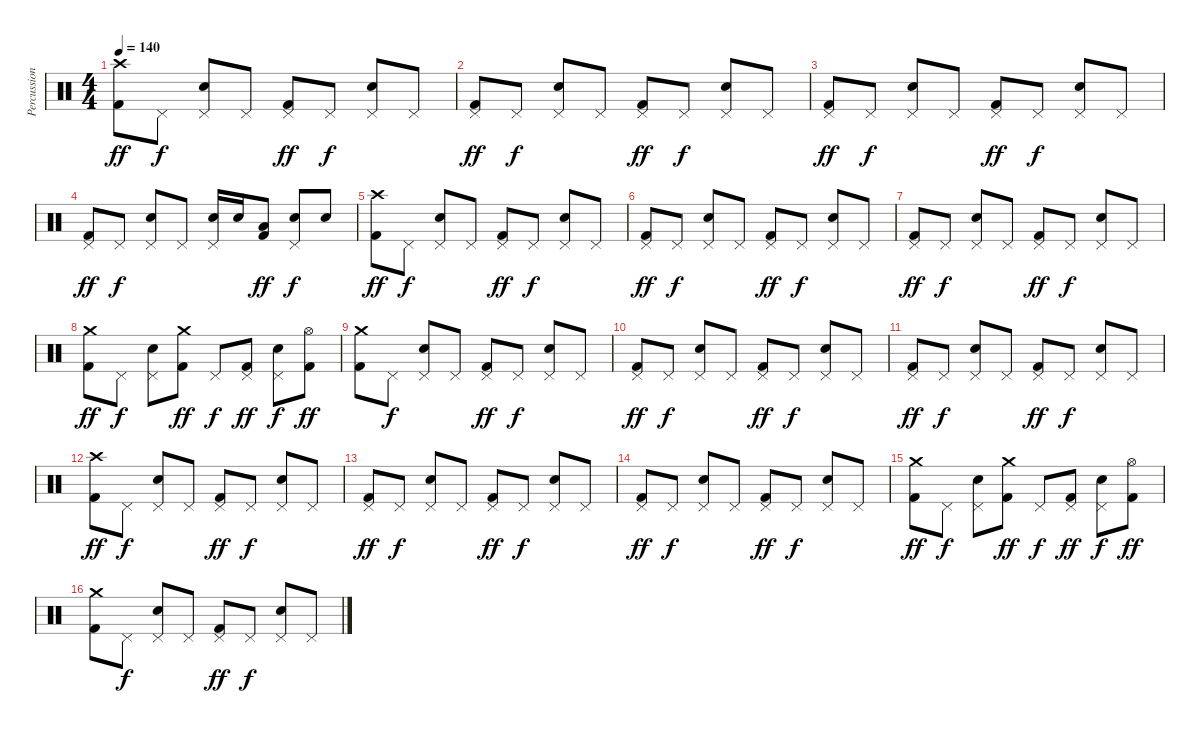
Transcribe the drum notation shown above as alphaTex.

\track ("Percussion" "Percussion") {instrument percussion}
\staff {score}
\articulation defaults
\ts (4 4)
\tempo 140
\clef neutral
\ks c
("Crash high (hit)" "Kick (hit) 2").8{dy ff} "Pedal Hi-Hat (hit)".8{dy f} ("Pedal Hi-Hat (hit)" "Snare (hit) 2").8 "Pedal Hi-Hat (hit)".8 ("Pedal Hi-Hat (hit)" "Kick (hit) 2").8{dy ff} "Pedal Hi-Hat (hit)".8{dy f} ("Pedal Hi-Hat (hit)" "Snare (hit) 2").8 "Pedal Hi-Hat (hit)".8 |
("Pedal Hi-Hat (hit)" "Kick (hit) 2").8{dy ff} "Pedal Hi-Hat (hit)".8{dy f} ("Pedal Hi-Hat (hit)" "Snare (hit) 2").8 "Pedal Hi-Hat (hit)".8 ("Pedal Hi-Hat (hit)" "Kick (hit) 2").8{dy ff} "Pedal Hi-Hat (hit)".8{dy f} ("Pedal Hi-Hat (hit)" "Snare (hit) 2").8 "Pedal Hi-Hat (hit)".8 |
("Pedal Hi-Hat (hit)" "Kick (hit) 2").8{dy ff} "Pedal Hi-Hat (hit)".8{dy f} ("Pedal Hi-Hat (hit)" "Snare (hit) 2").8 "Pedal Hi-Hat (hit)".8 ("Pedal Hi-Hat (hit)" "Kick (hit) 2").8{dy ff} "Pedal Hi-Hat (hit)".8{dy f} ("Pedal Hi-Hat (hit)" "Snare (hit) 2").8 "Pedal Hi-Hat (hit)".8 |
("Pedal Hi-Hat (hit)" "Kick (hit) 2").8{dy ff} "Pedal Hi-Hat (hit)".8{dy f} ("Pedal Hi-Hat (hit)" "Snare (hit) 2").8 "Pedal Hi-Hat (hit)".8 ("Pedal Hi-Hat (hit)" "Snare (hit) 2").16 "Snare (hit) 2".16 ("Low Tom (hit)" "Kick (hit) 2").8{dy ff} ("Pedal Hi-Hat (hit)" "Snare (hit) 2").8{dy f} "Snare (hit) 2".8 |
("Crash high (hit)" "Kick (hit) 2").8{dy ff} "Pedal Hi-Hat (hit)".8{dy f} ("Pedal Hi-Hat (hit)" "Snare (hit) 2").8 "Pedal Hi-Hat (hit)".8 ("Pedal Hi-Hat (hit)" "Kick (hit) 2").8{dy ff} "Pedal Hi-Hat (hit)".8{dy f} ("Pedal Hi-Hat (hit)" "Snare (hit) 2").8 "Pedal Hi-Hat (hit)".8 |
("Pedal Hi-Hat (hit)" "Kick (hit) 2").8{dy ff} "Pedal Hi-Hat (hit)".8{dy f} ("Pedal Hi-Hat (hit)" "Snare (hit) 2").8 "Pedal Hi-Hat (hit)".8 ("Pedal Hi-Hat (hit)" "Kick (hit) 2").8{dy ff} "Pedal Hi-Hat (hit)".8{dy f} ("Pedal Hi-Hat (hit)" "Snare (hit) 2").8 "Pedal Hi-Hat (hit)".8 |
("Pedal Hi-Hat (hit)" "Kick (hit) 2").8{dy ff} "Pedal Hi-Hat (hit)".8{dy f} ("Pedal Hi-Hat (hit)" "Snare (hit) 2").8 "Pedal Hi-Hat (hit)".8 ("Pedal Hi-Hat (hit)" "Kick (hit) 2").8{dy ff} "Pedal Hi-Hat (hit)".8{dy f} ("Pedal Hi-Hat (hit)" "Snare (hit) 2").8 "Pedal Hi-Hat (hit)".8 |
("Crash medium (hit)" "Kick (hit) 2").8{dy ff} "Pedal Hi-Hat (hit)".8{dy f} ("Pedal Hi-Hat (hit)" "Snare (hit) 2").8 ("Crash medium (hit)" "Kick (hit) 2").8{dy ff} "Pedal Hi-Hat (hit)".8{dy f} ("Pedal Hi-Hat (hit)" "Kick (hit) 2").8{dy ff} ("Pedal Hi-Hat (hit)" "Snare (hit) 2").8{dy f} ("Hi-Hat (open)" "Kick (hit) 2").8{dy ff} |
("Crash medium (hit)" "Kick (hit) 2").8 "Pedal Hi-Hat (hit)".8{dy f} ("Pedal Hi-Hat (hit)" "Snare (hit) 2").8 "Pedal Hi-Hat (hit)".8 ("Pedal Hi-Hat (hit)" "Kick (hit) 2").8{dy ff} "Pedal Hi-Hat (hit)".8{dy f} ("Pedal Hi-Hat (hit)" "Snare (hit) 2").8 "Pedal Hi-Hat (hit)".8 |
("Pedal Hi-Hat (hit)" "Kick (hit) 2").8{dy ff} "Pedal Hi-Hat (hit)".8{dy f} ("Pedal Hi-Hat (hit)" "Snare (hit) 2").8 "Pedal Hi-Hat (hit)".8 ("Pedal Hi-Hat (hit)" "Kick (hit) 2").8{dy ff} "Pedal Hi-Hat (hit)".8{dy f} ("Pedal Hi-Hat (hit)" "Snare (hit) 2").8 "Pedal Hi-Hat (hit)".8 |
("Pedal Hi-Hat (hit)" "Kick (hit) 2").8{dy ff} "Pedal Hi-Hat (hit)".8{dy f} ("Pedal Hi-Hat (hit)" "Snare (hit) 2").8 "Pedal Hi-Hat (hit)".8 ("Pedal Hi-Hat (hit)" "Kick (hit) 2").8{dy ff} "Pedal Hi-Hat (hit)".8{dy f} ("Pedal Hi-Hat (hit)" "Snare (hit) 2").8 "Pedal Hi-Hat (hit)".8 |
("Crash high (hit)" "Kick (hit) 2").8{dy ff} "Pedal Hi-Hat (hit)".8{dy f} ("Pedal Hi-Hat (hit)" "Snare (hit) 2").8 "Pedal Hi-Hat (hit)".8 ("Pedal Hi-Hat (hit)" "Kick (hit) 2").8{dy ff} "Pedal Hi-Hat (hit)".8{dy f} ("Pedal Hi-Hat (hit)" "Snare (hit) 2").8 "Pedal Hi-Hat (hit)".8 |
("Pedal Hi-Hat (hit)" "Kick (hit) 2").8{dy ff} "Pedal Hi-Hat (hit)".8{dy f} ("Pedal Hi-Hat (hit)" "Snare (hit) 2").8 "Pedal Hi-Hat (hit)".8 ("Pedal Hi-Hat (hit)" "Kick (hit) 2").8{dy ff} "Pedal Hi-Hat (hit)".8{dy f} ("Pedal Hi-Hat (hit)" "Snare (hit) 2").8 "Pedal Hi-Hat (hit)".8 |
("Pedal Hi-Hat (hit)" "Kick (hit) 2").8{dy ff} "Pedal Hi-Hat (hit)".8{dy f} ("Pedal Hi-Hat (hit)" "Snare (hit) 2").8 "Pedal Hi-Hat (hit)".8 ("Pedal Hi-Hat (hit)" "Kick (hit) 2").8{dy ff} "Pedal Hi-Hat (hit)".8{dy f} ("Pedal Hi-Hat (hit)" "Snare (hit) 2").8 "Pedal Hi-Hat (hit)".8 |
("Crash medium (hit)" "Kick (hit) 2").8{dy ff} "Pedal Hi-Hat (hit)".8{dy f} ("Pedal Hi-Hat (hit)" "Snare (hit) 2").8 ("Crash medium (hit)" "Kick (hit) 2").8{dy ff} "Pedal Hi-Hat (hit)".8{dy f} ("Pedal Hi-Hat (hit)" "Kick (hit) 2").8{dy ff} ("Pedal Hi-Hat (hit)" "Snare (hit) 2").8{dy f} ("Hi-Hat (open)" "Kick (hit) 2").8{dy ff} |
("Crash medium (hit)" "Kick (hit) 2").8 "Pedal Hi-Hat (hit)".8{dy f} ("Pedal Hi-Hat (hit)" "Snare (hit) 2").8 "Pedal Hi-Hat (hit)".8 ("Pedal Hi-Hat (hit)" "Kick (hit) 2").8{dy ff} "Pedal Hi-Hat (hit)".8{dy f} ("Pedal Hi-Hat (hit)" "Snare (hit) 2").8 "Pedal Hi-Hat (hit)".8
